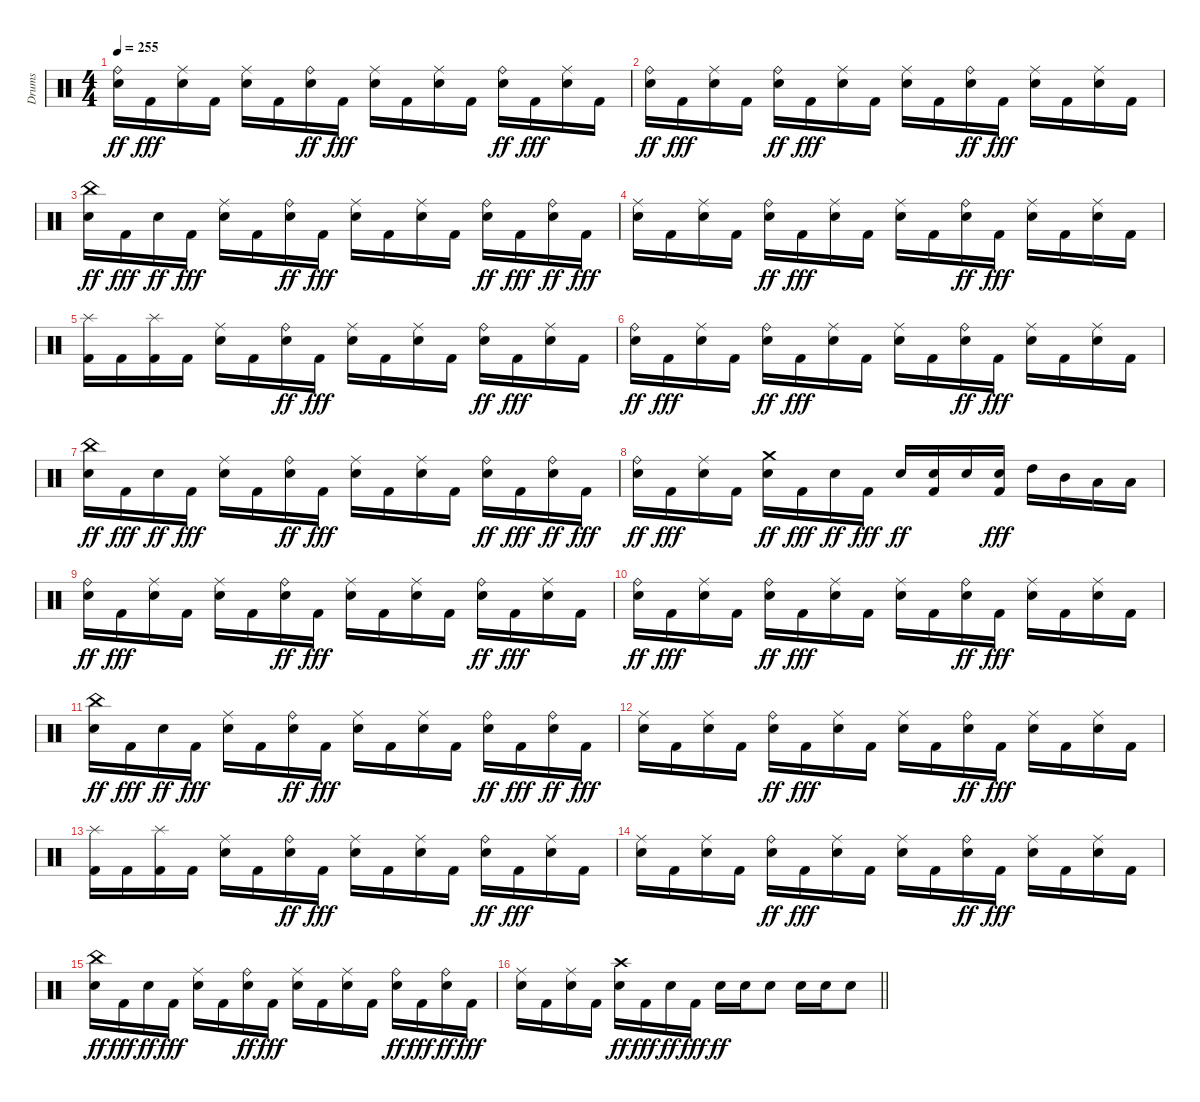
\track ("Drums" "Drums") {instrument percussion}
\staff {score}
\articulation defaults
\ts (4 4)
\tempo 255
\clef neutral
\ks c
("Snare (hit) 2" "Ride (bell)").16{dy ff} "Kick (hit) 2".16{dy fff} ("Snare (hit) 2" "Ride (middle)").16 "Kick (hit) 2".16 ("Snare (hit) 2" "Ride (middle)").16 "Kick (hit) 2".16 ("Snare (hit) 2" "Ride (bell)").16{dy ff} "Kick (hit) 2".16{dy fff} ("Snare (hit) 2" "Ride (middle)").16 "Kick (hit) 2".16 ("Snare (hit) 2" "Ride (middle)").16 "Kick (hit) 2".16 ("Snare (hit) 2" "Ride (bell)").16{dy ff} "Kick (hit) 2".16{dy fff} ("Snare (hit) 2" "Ride (middle)").16 "Kick (hit) 2".16 |
("Snare (hit) 2" "Ride (bell)").16{dy ff} "Kick (hit) 2".16{dy fff} ("Snare (hit) 2" "Ride (middle)").16 "Kick (hit) 2".16 ("Snare (hit) 2" "Ride (bell)").16{dy ff} "Kick (hit) 2".16{dy fff} ("Snare (hit) 2" "Ride (middle)").16 "Kick (hit) 2".16 ("Snare (hit) 2" "Ride (middle)").16 "Kick (hit) 2".16 ("Snare (hit) 2" "Ride (bell)").16{dy ff} "Kick (hit) 2".16{dy fff} ("Snare (hit) 2" "Ride (middle)").16 "Kick (hit) 2".16 ("Snare (hit) 2" "Ride (middle)").16 "Kick (hit) 2".16 |
("Snare (hit) 2" "China (hit)").16{dy ff} "Kick (hit) 2".16{dy fff} "Snare (hit) 2".16{dy ff} "Kick (hit) 2".16{dy fff} ("Snare (hit) 2" "Ride (middle)").16 "Kick (hit) 2".16 ("Snare (hit) 2" "Ride (bell)").16{dy ff} "Kick (hit) 2".16{dy fff} ("Snare (hit) 2" "Ride (middle)").16 "Kick (hit) 2".16 ("Snare (hit) 2" "Ride (middle)").16 "Kick (hit) 2".16 ("Snare (hit) 2" "Ride (bell)").16{dy ff} "Kick (hit) 2".16{dy fff} ("Snare (hit) 2" "Ride (bell)").16{dy ff} "Kick (hit) 2".16{dy fff} |
("Snare (hit) 2" "Ride (middle)").16 "Kick (hit) 2".16 ("Snare (hit) 2" "Ride (middle)").16 "Kick (hit) 2".16 ("Snare (hit) 2" "Ride (bell)").16{dy ff} "Kick (hit) 2".16{dy fff} ("Snare (hit) 2" "Ride (middle)").16 "Kick (hit) 2".16 ("Snare (hit) 2" "Ride (middle)").16 "Kick (hit) 2".16 ("Snare (hit) 2" "Ride (bell)").16{dy ff} "Kick (hit) 2".16{dy fff} ("Snare (hit) 2" "Ride (middle)").16 "Kick (hit) 2".16 ("Snare (hit) 2" "Ride (middle)").16 "Kick (hit) 2".16 |
("Kick (hit) 2" "Splash (hit)").16 "Kick (hit) 2".16 ("Kick (hit) 2" "Splash (hit)").16 "Kick (hit) 2".16 ("Snare (hit) 2" "Ride (middle)").16 "Kick (hit) 2".16 ("Snare (hit) 2" "Ride (bell)").16{dy ff} "Kick (hit) 2".16{dy fff} ("Snare (hit) 2" "Ride (middle)").16 "Kick (hit) 2".16 ("Snare (hit) 2" "Ride (middle)").16 "Kick (hit) 2".16 ("Snare (hit) 2" "Ride (bell)").16{dy ff} "Kick (hit) 2".16{dy fff} ("Snare (hit) 2" "Ride (middle)").16 "Kick (hit) 2".16 |
("Snare (hit) 2" "Ride (bell)").16{dy ff} "Kick (hit) 2".16{dy fff} ("Snare (hit) 2" "Ride (middle)").16 "Kick (hit) 2".16 ("Snare (hit) 2" "Ride (bell)").16{dy ff} "Kick (hit) 2".16{dy fff} ("Snare (hit) 2" "Ride (middle)").16 "Kick (hit) 2".16 ("Snare (hit) 2" "Ride (middle)").16 "Kick (hit) 2".16 ("Snare (hit) 2" "Ride (bell)").16{dy ff} "Kick (hit) 2".16{dy fff} ("Snare (hit) 2" "Ride (middle)").16 "Kick (hit) 2".16 ("Snare (hit) 2" "Ride (middle)").16 "Kick (hit) 2".16 |
("Snare (hit) 2" "China (hit)").16{dy ff} "Kick (hit) 2".16{dy fff} "Snare (hit) 2".16{dy ff} "Kick (hit) 2".16{dy fff} ("Snare (hit) 2" "Ride (middle)").16 "Kick (hit) 2".16 ("Snare (hit) 2" "Ride (bell)").16{dy ff} "Kick (hit) 2".16{dy fff} ("Snare (hit) 2" "Ride (middle)").16 "Kick (hit) 2".16 ("Snare (hit) 2" "Ride (middle)").16 "Kick (hit) 2".16 ("Snare (hit) 2" "Ride (bell)").16{dy ff} "Kick (hit) 2".16{dy fff} ("Snare (hit) 2" "Ride (bell)").16{dy ff} "Kick (hit) 2".16{dy fff} |
("Snare (hit) 2" "Ride (bell)").16{dy ff} "Kick (hit) 2".16{dy fff} ("Snare (hit) 2" "Ride (middle)").16 "Kick (hit) 2".16 ("Snare (hit) 2" "Crash medium (hit)").16{dy ff} "Kick (hit) 2".16{dy fff} "Snare (hit) 2".16{dy ff} "Kick (hit) 2".16{dy fff} "Snare (hit) 2".16{dy ff} ("Kick (hit) 2" "Snare (hit) 2").16 "Snare (hit) 2".16 ("Kick (hit) 2" "Snare (hit) 2").16{dy fff} "High Tom (hit)".16 "Mid Tom (hit)".16 "Low Tom (hit)".16 "Low Tom (hit)".16 |
("Snare (hit) 2" "Ride (bell)").16{dy ff} "Kick (hit) 2".16{dy fff} ("Snare (hit) 2" "Ride (middle)").16 "Kick (hit) 2".16 ("Snare (hit) 2" "Ride (middle)").16 "Kick (hit) 2".16 ("Snare (hit) 2" "Ride (bell)").16{dy ff} "Kick (hit) 2".16{dy fff} ("Snare (hit) 2" "Ride (middle)").16 "Kick (hit) 2".16 ("Snare (hit) 2" "Ride (middle)").16 "Kick (hit) 2".16 ("Snare (hit) 2" "Ride (bell)").16{dy ff} "Kick (hit) 2".16{dy fff} ("Snare (hit) 2" "Ride (middle)").16 "Kick (hit) 2".16 |
("Snare (hit) 2" "Ride (bell)").16{dy ff} "Kick (hit) 2".16{dy fff} ("Snare (hit) 2" "Ride (middle)").16 "Kick (hit) 2".16 ("Snare (hit) 2" "Ride (bell)").16{dy ff} "Kick (hit) 2".16{dy fff} ("Snare (hit) 2" "Ride (middle)").16 "Kick (hit) 2".16 ("Snare (hit) 2" "Ride (middle)").16 "Kick (hit) 2".16 ("Snare (hit) 2" "Ride (bell)").16{dy ff} "Kick (hit) 2".16{dy fff} ("Snare (hit) 2" "Ride (middle)").16 "Kick (hit) 2".16 ("Snare (hit) 2" "Ride (middle)").16 "Kick (hit) 2".16 |
("Snare (hit) 2" "China (hit)").16{dy ff} "Kick (hit) 2".16{dy fff} "Snare (hit) 2".16{dy ff} "Kick (hit) 2".16{dy fff} ("Snare (hit) 2" "Ride (middle)").16 "Kick (hit) 2".16 ("Snare (hit) 2" "Ride (bell)").16{dy ff} "Kick (hit) 2".16{dy fff} ("Snare (hit) 2" "Ride (middle)").16 "Kick (hit) 2".16 ("Snare (hit) 2" "Ride (middle)").16 "Kick (hit) 2".16 ("Snare (hit) 2" "Ride (bell)").16{dy ff} "Kick (hit) 2".16{dy fff} ("Snare (hit) 2" "Ride (bell)").16{dy ff} "Kick (hit) 2".16{dy fff} |
("Snare (hit) 2" "Ride (middle)").16 "Kick (hit) 2".16 ("Snare (hit) 2" "Ride (middle)").16 "Kick (hit) 2".16 ("Snare (hit) 2" "Ride (bell)").16{dy ff} "Kick (hit) 2".16{dy fff} ("Snare (hit) 2" "Ride (middle)").16 "Kick (hit) 2".16 ("Snare (hit) 2" "Ride (middle)").16 "Kick (hit) 2".16 ("Snare (hit) 2" "Ride (bell)").16{dy ff} "Kick (hit) 2".16{dy fff} ("Snare (hit) 2" "Ride (middle)").16 "Kick (hit) 2".16 ("Snare (hit) 2" "Ride (middle)").16 "Kick (hit) 2".16 |
("Kick (hit) 2" "Splash (hit)").16 "Kick (hit) 2".16 ("Kick (hit) 2" "Splash (hit)").16 "Kick (hit) 2".16 ("Snare (hit) 2" "Ride (middle)").16 "Kick (hit) 2".16 ("Snare (hit) 2" "Ride (bell)").16{dy ff} "Kick (hit) 2".16{dy fff} ("Snare (hit) 2" "Ride (middle)").16 "Kick (hit) 2".16 ("Snare (hit) 2" "Ride (middle)").16 "Kick (hit) 2".16 ("Snare (hit) 2" "Ride (bell)").16{dy ff} "Kick (hit) 2".16{dy fff} ("Snare (hit) 2" "Ride (middle)").16 "Kick (hit) 2".16 |
("Snare (hit) 2" "Ride (middle)").16 "Kick (hit) 2".16 ("Snare (hit) 2" "Ride (middle)").16 "Kick (hit) 2".16 ("Snare (hit) 2" "Ride (bell)").16{dy ff} "Kick (hit) 2".16{dy fff} ("Snare (hit) 2" "Ride (middle)").16 "Kick (hit) 2".16 ("Snare (hit) 2" "Ride (middle)").16 "Kick (hit) 2".16 ("Snare (hit) 2" "Ride (bell)").16{dy ff} "Kick (hit) 2".16{dy fff} ("Snare (hit) 2" "Ride (middle)").16 "Kick (hit) 2".16 ("Snare (hit) 2" "Ride (middle)").16 "Kick (hit) 2".16 |
("Snare (hit) 2" "China (hit)").16{dy ff} "Kick (hit) 2".16{dy fff} "Snare (hit) 2".16{dy ff} "Kick (hit) 2".16{dy fff} ("Snare (hit) 2" "Ride (middle)").16 "Kick (hit) 2".16 ("Snare (hit) 2" "Ride (bell)").16{dy ff} "Kick (hit) 2".16{dy fff} ("Snare (hit) 2" "Ride (middle)").16 "Kick (hit) 2".16 ("Snare (hit) 2" "Ride (middle)").16 "Kick (hit) 2".16 ("Snare (hit) 2" "Ride (bell)").16{dy ff} "Kick (hit) 2".16{dy fff} ("Snare (hit) 2" "Ride (bell)").16{dy ff} "Kick (hit) 2".16{dy fff} |
\barLineRight lightlight
("Snare (hit) 2" "Ride (middle)").16 "Kick (hit) 2".16 ("Snare (hit) 2" "Ride (middle)").16 "Kick (hit) 2".16 ("Snare (hit) 2" "Crash high (hit)").16{dy ff} "Kick (hit) 2".16{dy fff} "Snare (hit) 2".16{dy ff} "Kick (hit) 2".16{dy fff} "Snare (hit) 2".16{dy ff} "Snare (hit) 2".16 "Snare (hit) 2".8 "Snare (hit) 2".16 "Snare (hit) 2".16 "Snare (hit) 2".8
